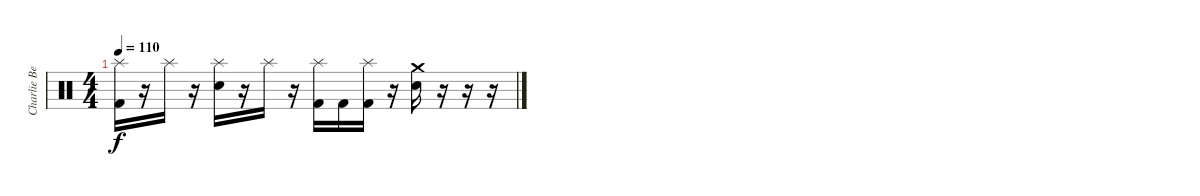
\track ("Charlie Benante" "Charlie Be") {instrument percussion}
\staff {score}
\articulation defaults
\ts (4 4)
\tempo 110
\clef neutral
\ks c
("Splash (hit)" "Kick (hit) 2").16{dy f} r.16 "Splash (hit)".16 r.16 ("Splash (hit)" "Electric Snare (hit)").16 r.16 "Splash (hit)".16 r.16 ("Splash (hit)" "Kick (hit) 2").16 "Kick (hit) 2".16 ("Splash (hit)" "Kick (hit) 2").16 r.16 ("Crash medium (hit)" "Electric Snare (hit)").16 r.16 r.16 r.16
